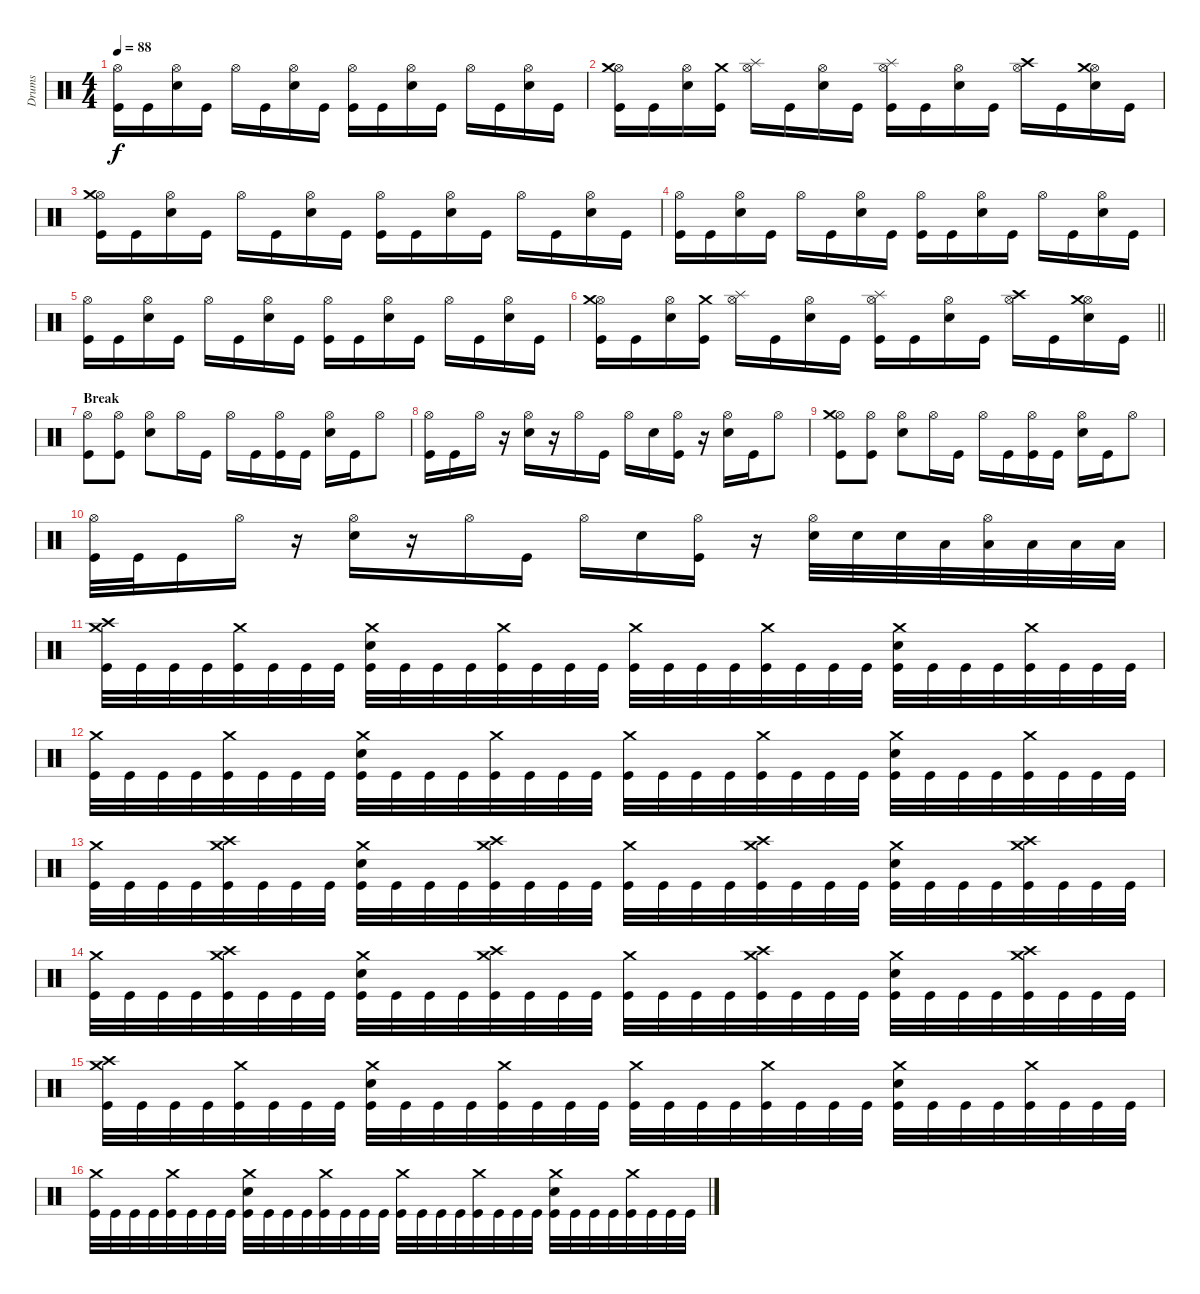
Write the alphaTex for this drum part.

\track ("Drums" "Drums") {instrument percussion}
\staff {score}
\articulation defaults
\ts (4 4)
\tempo 88
\clef neutral
\ks c
("Hi-Hat (open)" "Kick (hit)").16{dy f} "Kick (hit)".16 ("Hi-Hat (open)" "Electric Snare (hit)").16 "Kick (hit)".16 "Hi-Hat (open)".16 "Kick (hit)".16 ("Hi-Hat (open)" "Electric Snare (hit)").16 "Kick (hit)".16 ("Hi-Hat (open)" "Kick (hit)").16 "Kick (hit)".16 ("Hi-Hat (open)" "Electric Snare (hit)").16 "Kick (hit)".16 "Hi-Hat (open)".16 "Kick (hit)".16 ("Hi-Hat (open)" "Electric Snare (hit)").16 "Kick (hit)".16 |
("Hi-Hat (open)" "Crash medium (hit)" "Kick (hit)").16 "Kick (hit)".16 ("Hi-Hat (open)" "Electric Snare (hit)").16 ("Crash medium (hit)" "Kick (hit)").16 ("Hi-Hat (open)" "Splash (hit)").16 "Kick (hit)".16 ("Hi-Hat (open)" "Electric Snare (hit)").16 "Kick (hit)".16 ("Hi-Hat (open)" "Splash (hit)" "Kick (hit)").16 "Kick (hit)".16 ("Hi-Hat (open)" "Electric Snare (hit)").16 "Kick (hit)".16 ("Hi-Hat (open)" "Crash high (hit)").16 "Kick (hit)".16 ("Hi-Hat (open)" "Crash medium (hit)" "Electric Snare (hit)").16 "Kick (hit)".16 |
("Hi-Hat (open)" "Crash medium (hit)" "Kick (hit)").16 "Kick (hit)".16 ("Hi-Hat (open)" "Electric Snare (hit)").16 "Kick (hit)".16 "Hi-Hat (open)".16 "Kick (hit)".16 ("Hi-Hat (open)" "Electric Snare (hit)").16 "Kick (hit)".16 ("Hi-Hat (open)" "Kick (hit)").16 "Kick (hit)".16 ("Hi-Hat (open)" "Electric Snare (hit)").16 "Kick (hit)".16 "Hi-Hat (open)".16 "Kick (hit)".16 ("Hi-Hat (open)" "Electric Snare (hit)").16 "Kick (hit)".16 |
("Hi-Hat (open)" "Kick (hit)").16 "Kick (hit)".16 ("Hi-Hat (open)" "Electric Snare (hit)").16 "Kick (hit)".16 "Hi-Hat (open)".16 "Kick (hit)".16 ("Hi-Hat (open)" "Electric Snare (hit)").16 "Kick (hit)".16 ("Hi-Hat (open)" "Kick (hit)").16 "Kick (hit)".16 ("Hi-Hat (open)" "Electric Snare (hit)").16 "Kick (hit)".16 "Hi-Hat (open)".16 "Kick (hit)".16 ("Hi-Hat (open)" "Electric Snare (hit)").16 "Kick (hit)".16 |
("Hi-Hat (open)" "Kick (hit)").16 "Kick (hit)".16 ("Hi-Hat (open)" "Electric Snare (hit)").16 "Kick (hit)".16 "Hi-Hat (open)".16 "Kick (hit)".16 ("Hi-Hat (open)" "Electric Snare (hit)").16 "Kick (hit)".16 ("Hi-Hat (open)" "Kick (hit)").16 "Kick (hit)".16 ("Hi-Hat (open)" "Electric Snare (hit)").16 "Kick (hit)".16 "Hi-Hat (open)".16 "Kick (hit)".16 ("Hi-Hat (open)" "Electric Snare (hit)").16 "Kick (hit)".16 |
\barLineRight lightlight
("Hi-Hat (open)" "Crash medium (hit)" "Kick (hit)").16 "Kick (hit)".16 ("Hi-Hat (open)" "Electric Snare (hit)").16 ("Crash medium (hit)" "Kick (hit)").16 ("Hi-Hat (open)" "Splash (hit)").16 "Kick (hit)".16 ("Hi-Hat (open)" "Electric Snare (hit)").16 "Kick (hit)".16 ("Hi-Hat (open)" "Splash (hit)" "Kick (hit)").16 "Kick (hit)".16 ("Hi-Hat (open)" "Electric Snare (hit)").16 "Kick (hit)".16 ("Hi-Hat (open)" "Crash high (hit)").16 "Kick (hit)".16 ("Hi-Hat (open)" "Crash medium (hit)" "Electric Snare (hit)").16 "Kick (hit)".16 |
\section ("" "Break")
("Hi-Hat (open)" "Kick (hit)").8 ("Hi-Hat (open)" "Kick (hit)").8 ("Hi-Hat (open)" "Electric Snare (hit)").8 "Hi-Hat (open)".16 "Kick (hit)".16 "Hi-Hat (open)".16 "Kick (hit)".16 ("Hi-Hat (open)" "Kick (hit)").16 "Kick (hit)".16 ("Hi-Hat (open)" "Electric Snare (hit)").16 "Kick (hit)".16 "Hi-Hat (open)".8 |
("Hi-Hat (open)" "Kick (hit)").16 "Kick (hit)".16 "Hi-Hat (open)".16 r.16 ("Hi-Hat (open)" "Electric Snare (hit)").16 r.16 "Hi-Hat (open)".16 "Kick (hit)".16 "Hi-Hat (open)".16 "Electric Snare (hit)".16 ("Hi-Hat (open)" "Kick (hit)").16 r.16 ("Hi-Hat (open)" "Electric Snare (hit)").16 "Kick (hit)".16 "Hi-Hat (open)".8 |
("Hi-Hat (open)" "Crash medium (hit)" "Kick (hit)").8 ("Hi-Hat (open)" "Kick (hit)").8 ("Hi-Hat (open)" "Electric Snare (hit)").8 "Hi-Hat (open)".16 "Kick (hit)".16 "Hi-Hat (open)".16 "Kick (hit)".16 ("Hi-Hat (open)" "Kick (hit)").16 "Kick (hit)".16 ("Hi-Hat (open)" "Electric Snare (hit)").16 "Kick (hit)".16 "Hi-Hat (open)".8 |
("Hi-Hat (open)" "Kick (hit)").32 "Kick (hit)".32 "Kick (hit)".16 "Hi-Hat (open)".16 r.16 ("Hi-Hat (open)" "Electric Snare (hit)").16 r.16 "Hi-Hat (open)".16 "Kick (hit)".16 "Hi-Hat (open)".16 "Electric Snare (hit)".16 ("Hi-Hat (open)" "Kick (hit)").16 r.16 ("Hi-Hat (open)" "Electric Snare (hit)").32 "Electric Snare (hit)".32 "Electric Snare (hit)".32 "Low Tom (hit)".32 ("Hi-Hat (open)" "Low Tom (hit)").32 "Low Tom (hit)".32 "Low Floor Tom (hit)".32 "Low Floor Tom (hit)".32 |
("Crash medium (hit)" "Crash high (hit)" "Kick (hit)").32 "Kick (hit)".32 "Kick (hit)".32 "Kick (hit)".32 ("Crash medium (hit)" "Kick (hit)").32 "Kick (hit)".32 "Kick (hit)".32 "Kick (hit)".32 ("Crash medium (hit)" "Electric Snare (hit)" "Kick (hit)").32 "Kick (hit)".32 "Kick (hit)".32 "Kick (hit)".32 ("Crash medium (hit)" "Kick (hit)").32 "Kick (hit)".32 "Kick (hit)".32 "Kick (hit)".32 ("Crash medium (hit)" "Kick (hit)").32 "Kick (hit)".32 "Kick (hit)".32 "Kick (hit)".32 ("Crash medium (hit)" "Kick (hit)").32 "Kick (hit)".32 "Kick (hit)".32 "Kick (hit)".32 ("Crash medium (hit)" "Electric Snare (hit)" "Kick (hit)").32 "Kick (hit)".32 "Kick (hit)".32 "Kick (hit)".32 ("Crash medium (hit)" "Kick (hit)").32 "Kick (hit)".32 "Kick (hit)".32 "Kick (hit)".32 |
("Crash medium (hit)" "Kick (hit)").32 "Kick (hit)".32 "Kick (hit)".32 "Kick (hit)".32 ("Crash medium (hit)" "Kick (hit)").32 "Kick (hit)".32 "Kick (hit)".32 "Kick (hit)".32 ("Crash medium (hit)" "Electric Snare (hit)" "Kick (hit)").32 "Kick (hit)".32 "Kick (hit)".32 "Kick (hit)".32 ("Crash medium (hit)" "Kick (hit)").32 "Kick (hit)".32 "Kick (hit)".32 "Kick (hit)".32 ("Crash medium (hit)" "Kick (hit)").32 "Kick (hit)".32 "Kick (hit)".32 "Kick (hit)".32 ("Crash medium (hit)" "Kick (hit)").32 "Kick (hit)".32 "Kick (hit)".32 "Kick (hit)".32 ("Crash medium (hit)" "Electric Snare (hit)" "Kick (hit)").32 "Kick (hit)".32 "Kick (hit)".32 "Kick (hit)".32 ("Crash medium (hit)" "Kick (hit)").32 "Kick (hit)".32 "Kick (hit)".32 "Kick (hit)".32 |
("Crash medium (hit)" "Kick (hit)").32 "Kick (hit)".32 "Kick (hit)".32 "Kick (hit)".32 ("Crash medium (hit)" "Crash high (hit)" "Kick (hit)").32 "Kick (hit)".32 "Kick (hit)".32 "Kick (hit)".32 ("Crash medium (hit)" "Electric Snare (hit)" "Kick (hit)").32 "Kick (hit)".32 "Kick (hit)".32 "Kick (hit)".32 ("Crash medium (hit)" "Crash high (hit)" "Kick (hit)").32 "Kick (hit)".32 "Kick (hit)".32 "Kick (hit)".32 ("Crash medium (hit)" "Kick (hit)").32 "Kick (hit)".32 "Kick (hit)".32 "Kick (hit)".32 ("Crash medium (hit)" "Crash high (hit)" "Kick (hit)").32 "Kick (hit)".32 "Kick (hit)".32 "Kick (hit)".32 ("Crash medium (hit)" "Electric Snare (hit)" "Kick (hit)").32 "Kick (hit)".32 "Kick (hit)".32 "Kick (hit)".32 ("Crash medium (hit)" "Crash high (hit)" "Kick (hit)").32 "Kick (hit)".32 "Kick (hit)".32 "Kick (hit)".32 |
("Crash medium (hit)" "Kick (hit)").32 "Kick (hit)".32 "Kick (hit)".32 "Kick (hit)".32 ("Crash medium (hit)" "Crash high (hit)" "Kick (hit)").32 "Kick (hit)".32 "Kick (hit)".32 "Kick (hit)".32 ("Crash medium (hit)" "Electric Snare (hit)" "Kick (hit)").32 "Kick (hit)".32 "Kick (hit)".32 "Kick (hit)".32 ("Crash medium (hit)" "Crash high (hit)" "Kick (hit)").32 "Kick (hit)".32 "Kick (hit)".32 "Kick (hit)".32 ("Crash medium (hit)" "Kick (hit)").32 "Kick (hit)".32 "Kick (hit)".32 "Kick (hit)".32 ("Crash medium (hit)" "Crash high (hit)" "Kick (hit)").32 "Kick (hit)".32 "Kick (hit)".32 "Kick (hit)".32 ("Crash medium (hit)" "Electric Snare (hit)" "Kick (hit)").32 "Kick (hit)".32 "Kick (hit)".32 "Kick (hit)".32 ("Crash medium (hit)" "Crash high (hit)" "Kick (hit)").32 "Kick (hit)".32 "Kick (hit)".32 "Kick (hit)".32 |
("Crash medium (hit)" "Crash high (hit)" "Kick (hit)").32 "Kick (hit)".32 "Kick (hit)".32 "Kick (hit)".32 ("Crash medium (hit)" "Kick (hit)").32 "Kick (hit)".32 "Kick (hit)".32 "Kick (hit)".32 ("Crash medium (hit)" "Electric Snare (hit)" "Kick (hit)").32 "Kick (hit)".32 "Kick (hit)".32 "Kick (hit)".32 ("Crash medium (hit)" "Kick (hit)").32 "Kick (hit)".32 "Kick (hit)".32 "Kick (hit)".32 ("Crash medium (hit)" "Kick (hit)").32 "Kick (hit)".32 "Kick (hit)".32 "Kick (hit)".32 ("Crash medium (hit)" "Kick (hit)").32 "Kick (hit)".32 "Kick (hit)".32 "Kick (hit)".32 ("Crash medium (hit)" "Electric Snare (hit)" "Kick (hit)").32 "Kick (hit)".32 "Kick (hit)".32 "Kick (hit)".32 ("Crash medium (hit)" "Kick (hit)").32 "Kick (hit)".32 "Kick (hit)".32 "Kick (hit)".32 |
("Crash medium (hit)" "Kick (hit)").32 "Kick (hit)".32 "Kick (hit)".32 "Kick (hit)".32 ("Crash medium (hit)" "Kick (hit)").32 "Kick (hit)".32 "Kick (hit)".32 "Kick (hit)".32 ("Crash medium (hit)" "Electric Snare (hit)" "Kick (hit)").32 "Kick (hit)".32 "Kick (hit)".32 "Kick (hit)".32 ("Crash medium (hit)" "Kick (hit)").32 "Kick (hit)".32 "Kick (hit)".32 "Kick (hit)".32 ("Crash medium (hit)" "Kick (hit)").32 "Kick (hit)".32 "Kick (hit)".32 "Kick (hit)".32 ("Crash medium (hit)" "Kick (hit)").32 "Kick (hit)".32 "Kick (hit)".32 "Kick (hit)".32 ("Crash medium (hit)" "Electric Snare (hit)" "Kick (hit)").32 "Kick (hit)".32 "Kick (hit)".32 "Kick (hit)".32 ("Crash medium (hit)" "Kick (hit)").32 "Kick (hit)".32 "Kick (hit)".32 "Kick (hit)".32
